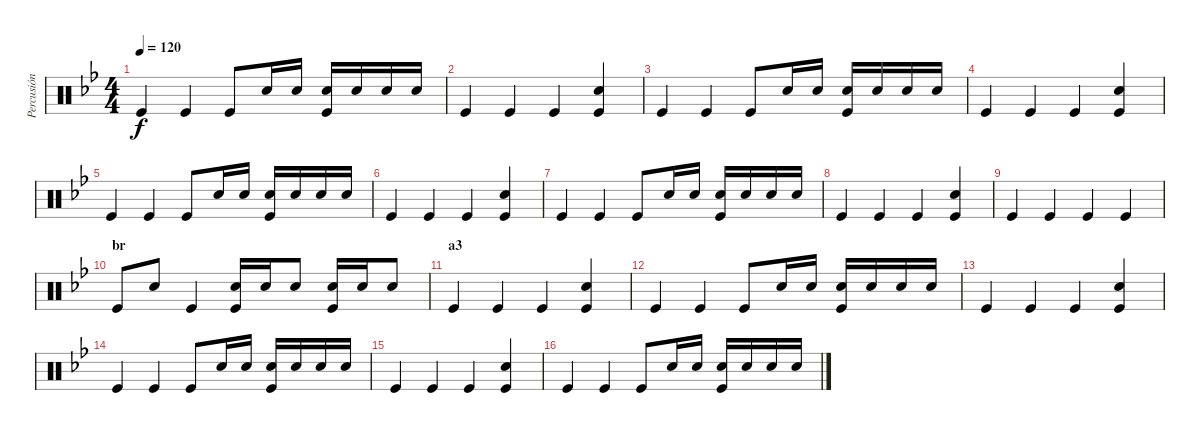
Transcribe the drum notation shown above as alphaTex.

\track ("Percusión" "Percusión") {instrument percussion}
\staff {score}
\articulation defaults
\ts (4 4)
\tempo 120
\clef neutral
\ks bb "Kick (hit)".4{dy f} "Kick (hit)".4 "Kick (hit)".8 "Electric Snare (hit)".16 "Electric Snare (hit)".16
("Electric Snare (hit)" "Kick (hit)").16 "Electric Snare (hit)".16 "Electric Snare (hit)".16 "Electric Snare (hit)".16 |
"Kick (hit)".4 "Kick (hit)".4 "Kick (hit)".4 ("Electric Snare (hit)" "Kick (hit)").4 |
"Kick (hit)".4 "Kick (hit)".4 "Kick (hit)".8 "Electric Snare (hit)".16 "Electric Snare (hit)".16 ("Electric Snare (hit)" "Kick (hit)").16 "Electric Snare (hit)".16 "Electric Snare (hit)".16 "Electric Snare (hit)".16 |
"Kick (hit)".4 "Kick (hit)".4 "Kick (hit)".4 ("Electric Snare (hit)" "Kick (hit)").4 |
"Kick (hit)".4 "Kick (hit)".4 "Kick (hit)".8 "Electric Snare (hit)".16 "Electric Snare (hit)".16 ("Electric Snare (hit)" "Kick (hit)").16 "Electric Snare (hit)".16 "Electric Snare (hit)".16 "Electric Snare (hit)".16 |
"Kick (hit)".4 "Kick (hit)".4 "Kick (hit)".4 ("Electric Snare (hit)" "Kick (hit)").4 |
"Kick (hit)".4 "Kick (hit)".4 "Kick (hit)".8 "Electric Snare (hit)".16 "Electric Snare (hit)".16 ("Electric Snare (hit)" "Kick (hit)").16 "Electric Snare (hit)".16 "Electric Snare (hit)".16 "Electric Snare (hit)".16 |
"Kick (hit)".4 "Kick (hit)".4 "Kick (hit)".4 ("Electric Snare (hit)" "Kick (hit)").4 |
"Kick (hit)".4 "Kick (hit)".4 "Kick (hit)".4 "Kick (hit)".4 |
\section ("" "br")
"Kick (hit)".8 "Electric Snare (hit)".8 "Kick (hit)".4 ("Electric Snare (hit)" "Kick (hit)").16 "Electric Snare (hit)".16 "Electric Snare (hit)".8 ("Electric Snare (hit)" "Kick (hit)").16 "Electric Snare (hit)".16 "Electric Snare (hit)".8 |
\section ("" "a3")
"Kick (hit)".4 "Kick (hit)".4 "Kick (hit)".4 ("Electric Snare (hit)" "Kick (hit)").4 |
"Kick (hit)".4 "Kick (hit)".4 "Kick (hit)".8 "Electric Snare (hit)".16 "Electric Snare (hit)".16 ("Electric Snare (hit)" "Kick (hit)").16 "Electric Snare (hit)".16 "Electric Snare (hit)".16 "Electric Snare (hit)".16 |
"Kick (hit)".4 "Kick (hit)".4 "Kick (hit)".4 ("Electric Snare (hit)" "Kick (hit)").4 |
"Kick (hit)".4 "Kick (hit)".4 "Kick (hit)".8 "Electric Snare (hit)".16 "Electric Snare (hit)".16 ("Electric Snare (hit)" "Kick (hit)").16 "Electric Snare (hit)".16 "Electric Snare (hit)".16 "Electric Snare (hit)".16 |
"Kick (hit)".4 "Kick (hit)".4 "Kick (hit)".4 ("Electric Snare (hit)" "Kick (hit)").4 |
"Kick (hit)".4 "Kick (hit)".4 "Kick (hit)".8 "Electric Snare (hit)".16 "Electric Snare (hit)".16 ("Electric Snare (hit)" "Kick (hit)").16 "Electric Snare (hit)".16 "Electric Snare (hit)".16 "Electric Snare (hit)".16
